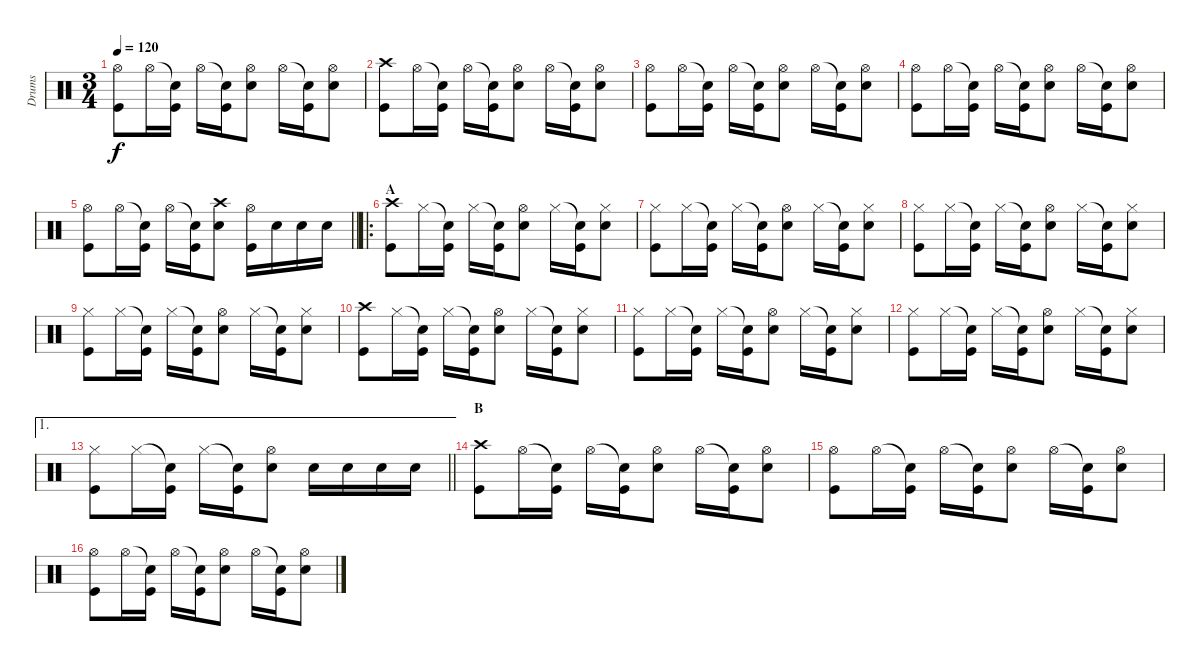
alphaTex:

\track ("Drums" "Drums") {instrument percussion}
\staff {score}
\articulation defaults
\ts (3 4)
\tempo 120
\clef neutral
\ks c
("Hi-Hat (open)" "Kick (hit)").8{dy f} "Hi-Hat (open)".16 ("Snare (hit)"{t} "Kick (hit)").16 "Hi-Hat (open)".16 ("Snare (hit)"{t} "Kick (hit)").16 ("Hi-Hat (open)" "Snare (hit) 2").8 "Hi-Hat (open)".16 ("Snare (hit)"{t} "Kick (hit)").16 ("Hi-Hat (open)" "Snare (hit) 2").8 |
("Crash high (hit)" "Kick (hit)").8 "Hi-Hat (open)".16 ("Snare (hit)"{t} "Kick (hit)").16 "Hi-Hat (open)".16 ("Snare (hit)"{t} "Kick (hit)").16 ("Hi-Hat (open)" "Snare (hit) 2").8 "Hi-Hat (open)".16 ("Snare (hit)"{t} "Kick (hit)").16 ("Hi-Hat (open)" "Snare (hit) 2").8 |
("Hi-Hat (open)" "Kick (hit)").8 "Hi-Hat (open)".16 ("Snare (hit)"{t} "Kick (hit)").16 "Hi-Hat (open)".16 ("Snare (hit)"{t} "Kick (hit)").16 ("Hi-Hat (open)" "Snare (hit) 2").8 "Hi-Hat (open)".16 ("Snare (hit)"{t} "Kick (hit)").16 ("Hi-Hat (open)" "Snare (hit) 2").8 |
("Hi-Hat (open)" "Kick (hit)").8 "Hi-Hat (open)".16 ("Snare (hit)"{t} "Kick (hit)").16 "Hi-Hat (open)".16 ("Snare (hit)"{t} "Kick (hit)").16 ("Hi-Hat (open)" "Snare (hit) 2").8 "Hi-Hat (open)".16 ("Snare (hit)"{t} "Kick (hit)").16 ("Hi-Hat (open)" "Snare (hit) 2").8 |
\barLineRight lightlight
("Hi-Hat (open)" "Kick (hit)").8 "Hi-Hat (open)".16 ("Snare (hit)"{t} "Kick (hit)").16 "Hi-Hat (open)".16 ("Snare (hit)"{t} "Kick (hit)").16 ("Crash high (hit)" "Snare (hit) 2").8 ("Hi-Hat (open)" "Kick (hit)").16 "Snare (hit) 2".16 "Snare (hit) 2".16 "Snare (hit) 2".16 |
\ro
\section ("" "A")
("Crash high (hit)" "Kick (hit)").8 "Hi-Hat (closed)".16 ("Snare (hit)"{t} "Kick (hit)").16 "Hi-Hat (closed)".16 ("Snare (hit)"{t} "Kick (hit)").16 ("Hi-Hat (open)" "Snare (hit) 2").8 "Hi-Hat (closed)".16 ("Snare (hit)"{t} "Kick (hit)").16 ("Hi-Hat (closed)" "Snare (hit) 2").8 |
("Hi-Hat (closed)" "Kick (hit)").8 "Hi-Hat (closed)".16 ("Snare (hit)"{t} "Kick (hit)").16 "Hi-Hat (closed)".16 ("Snare (hit)"{t} "Kick (hit)").16 ("Hi-Hat (open)" "Snare (hit) 2").8 "Hi-Hat (closed)".16 ("Snare (hit)"{t} "Kick (hit)").16 ("Hi-Hat (closed)" "Snare (hit) 2").8 |
("Hi-Hat (closed)" "Kick (hit)").8 "Hi-Hat (closed)".16 ("Snare (hit)"{t} "Kick (hit)").16 "Hi-Hat (closed)".16 ("Snare (hit)"{t} "Kick (hit)").16 ("Hi-Hat (open)" "Snare (hit) 2").8 "Hi-Hat (closed)".16 ("Snare (hit)"{t} "Kick (hit)").16 ("Hi-Hat (closed)" "Snare (hit) 2").8 |
("Hi-Hat (closed)" "Kick (hit)").8 "Hi-Hat (closed)".16 ("Snare (hit)"{t} "Kick (hit)").16 "Hi-Hat (closed)".16 ("Snare (hit)"{t} "Kick (hit)").16 ("Hi-Hat (open)" "Snare (hit) 2").8 "Hi-Hat (closed)".16 ("Snare (hit)"{t} "Kick (hit)").16 ("Hi-Hat (closed)" "Snare (hit) 2").8 |
("Crash high (hit)" "Kick (hit)").8 "Hi-Hat (closed)".16 ("Snare (hit)"{t} "Kick (hit)").16 "Hi-Hat (closed)".16 ("Snare (hit)"{t} "Kick (hit)").16 ("Hi-Hat (open)" "Snare (hit) 2").8 "Hi-Hat (closed)".16 ("Snare (hit)"{t} "Kick (hit)").16 ("Hi-Hat (closed)" "Snare (hit) 2").8 |
("Hi-Hat (closed)" "Kick (hit)").8 "Hi-Hat (closed)".16 ("Snare (hit)"{t} "Kick (hit)").16 "Hi-Hat (closed)".16 ("Snare (hit)"{t} "Kick (hit)").16 ("Hi-Hat (open)" "Snare (hit) 2").8 "Hi-Hat (closed)".16 ("Snare (hit)"{t} "Kick (hit)").16 ("Hi-Hat (closed)" "Snare (hit) 2").8 |
("Hi-Hat (closed)" "Kick (hit)").8 "Hi-Hat (closed)".16 ("Snare (hit)"{t} "Kick (hit)").16 "Hi-Hat (closed)".16 ("Snare (hit)"{t} "Kick (hit)").16 ("Hi-Hat (open)" "Snare (hit) 2").8 "Hi-Hat (closed)".16 ("Snare (hit)"{t} "Kick (hit)").16 ("Hi-Hat (closed)" "Snare (hit) 2").8 |
\ae 1
\barLineRight lightlight
("Hi-Hat (closed)" "Kick (hit)").8 "Hi-Hat (closed)".16 ("Snare (hit)"{t} "Kick (hit)").16 "Hi-Hat (closed)".16 ("Snare (hit)"{t} "Kick (hit)").16 ("Hi-Hat (open)" "Snare (hit) 2").8 "Snare (hit) 2".16 "Snare (hit) 2".16 "Snare (hit) 2".16 "Snare (hit) 2".16 |
\section ("" "B")
("Crash high (hit)" "Kick (hit)").8 "Hi-Hat (open)".16 ("Snare (hit)"{t} "Kick (hit)").16 "Hi-Hat (open)".16 ("Snare (hit)"{t} "Kick (hit)").16 ("Hi-Hat (open)" "Snare (hit) 2").8 "Hi-Hat (open)".16 ("Snare (hit)"{t} "Kick (hit)").16 ("Hi-Hat (open)" "Snare (hit) 2").8 |
("Hi-Hat (open)" "Kick (hit)").8 "Hi-Hat (open)".16 ("Snare (hit)"{t} "Kick (hit)").16 "Hi-Hat (open)".16 ("Snare (hit)"{t} "Kick (hit)").16 ("Hi-Hat (open)" "Snare (hit) 2").8 "Hi-Hat (open)".16 ("Snare (hit)"{t} "Kick (hit)").16 ("Hi-Hat (open)" "Snare (hit) 2").8 |
("Hi-Hat (open)" "Kick (hit)").8 "Hi-Hat (open)".16 ("Snare (hit)"{t} "Kick (hit)").16 "Hi-Hat (open)".16 ("Snare (hit)"{t} "Kick (hit)").16 ("Hi-Hat (open)" "Snare (hit) 2").8 "Hi-Hat (open)".16 ("Snare (hit)"{t} "Kick (hit)").16 ("Hi-Hat (open)" "Snare (hit) 2").8
